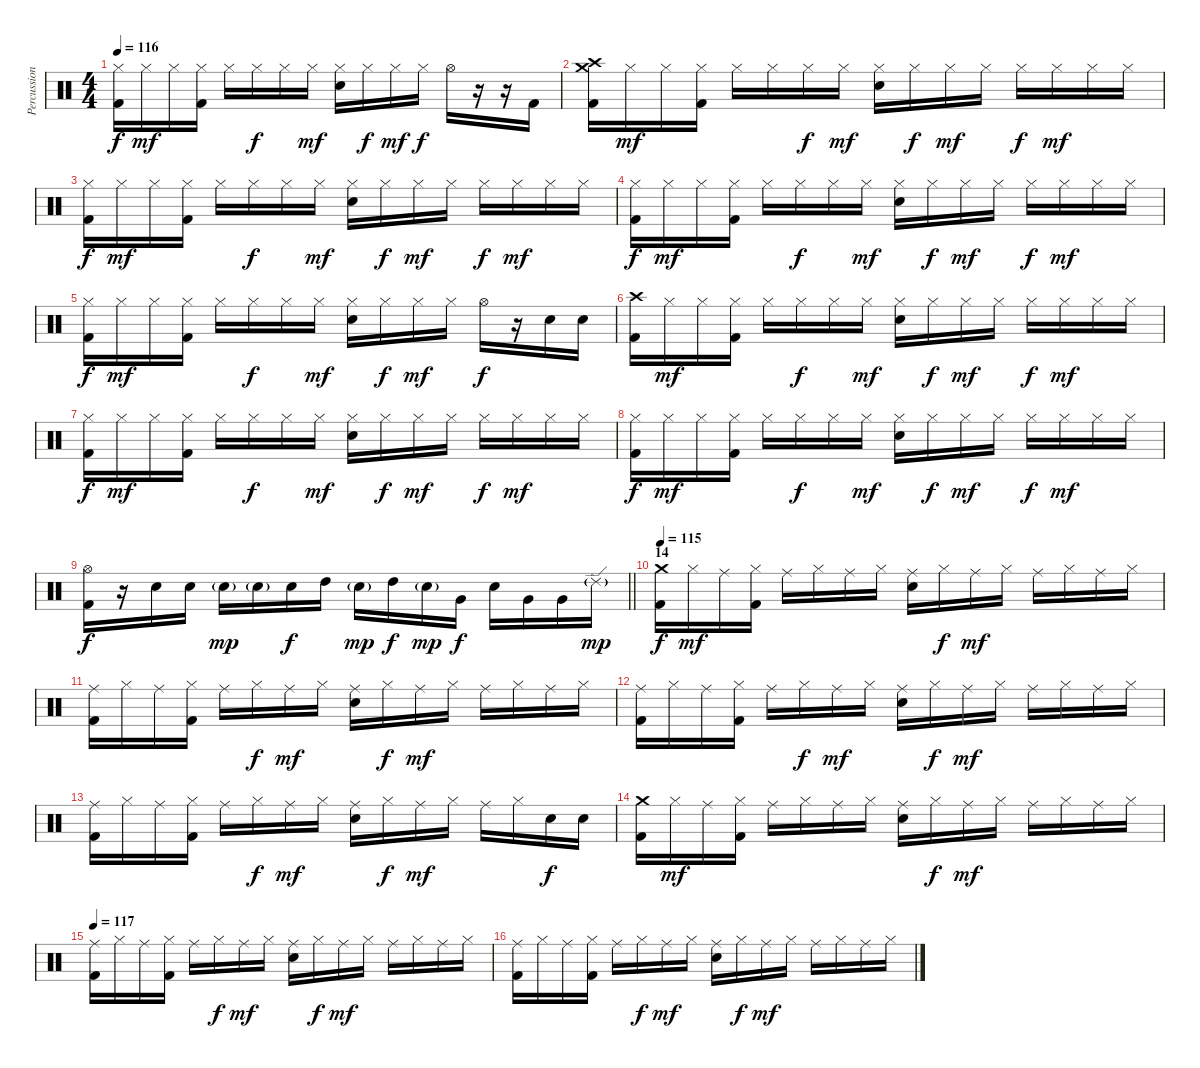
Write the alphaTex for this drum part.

\track ("Percussion" "Percussion") {instrument percussion}
\staff {score}
\articulation defaults
\ts (4 4)
\tempo 116
\clef neutral
\ks c
("Hi-Hat (closed)" "Kick (hit) 2").16{dy f} "Hi-Hat (closed)".16{dy mf} "Hi-Hat (closed)".16 ("Hi-Hat (closed)" "Kick (hit) 2").16 "Hi-Hat (closed)".16 "Hi-Hat (closed)".16{dy f} "Hi-Hat (closed)".16 "Hi-Hat (closed)".16{dy mf} ("Hi-Hat (closed)" "Snare (hit) 2").16 "Hi-Hat (closed)".16{dy f} "Hi-Hat (closed)".16{dy mf} "Hi-Hat (closed)".16{dy f} "Hi-Hat (open)".16 r.16 r.16 "Kick (hit) 2".16 |
("Crash high (hit)" "Crash medium (hit)" "Kick (hit) 2").16 "Hi-Hat (closed)".16{dy mf} "Hi-Hat (closed)".16 ("Hi-Hat (closed)" "Kick (hit) 2").16 "Hi-Hat (closed)".16 "Hi-Hat (closed)".16 "Hi-Hat (closed)".16{dy f} "Hi-Hat (closed)".16{dy mf} ("Hi-Hat (closed)" "Snare (hit) 2").16 "Hi-Hat (closed)".16{dy f} "Hi-Hat (closed)".16{dy mf} "Hi-Hat (closed)".16 "Hi-Hat (closed)".16{dy f} "Hi-Hat (closed)".16{dy mf} "Hi-Hat (closed)".16 "Hi-Hat (closed)".16 |
("Hi-Hat (closed)" "Kick (hit) 2").16{dy f} "Hi-Hat (closed)".16{dy mf} "Hi-Hat (closed)".16 ("Hi-Hat (closed)" "Kick (hit) 2").16 "Hi-Hat (closed)".16 "Hi-Hat (closed)".16{dy f} "Hi-Hat (closed)".16 "Hi-Hat (closed)".16{dy mf} ("Hi-Hat (closed)" "Snare (hit) 2").16 "Hi-Hat (closed)".16{dy f} "Hi-Hat (closed)".16{dy mf} "Hi-Hat (closed)".16 "Hi-Hat (closed)".16{dy f} "Hi-Hat (closed)".16{dy mf} "Hi-Hat (closed)".16 "Hi-Hat (closed)".16 |
("Hi-Hat (closed)" "Kick (hit) 2").16{dy f} "Hi-Hat (closed)".16{dy mf} "Hi-Hat (closed)".16 ("Hi-Hat (closed)" "Kick (hit) 2").16 "Hi-Hat (closed)".16 "Hi-Hat (closed)".16{dy f} "Hi-Hat (closed)".16 "Hi-Hat (closed)".16{dy mf} ("Hi-Hat (closed)" "Snare (hit) 2").16 "Hi-Hat (closed)".16{dy f} "Hi-Hat (closed)".16{dy mf} "Hi-Hat (closed)".16 "Hi-Hat (closed)".16{dy f} "Hi-Hat (closed)".16{dy mf} "Hi-Hat (closed)".16 "Hi-Hat (closed)".16 |
("Hi-Hat (closed)" "Kick (hit) 2").16{dy f} "Hi-Hat (closed)".16{dy mf} "Hi-Hat (closed)".16 ("Hi-Hat (closed)" "Kick (hit) 2").16 "Hi-Hat (closed)".16 "Hi-Hat (closed)".16{dy f} "Hi-Hat (closed)".16 "Hi-Hat (closed)".16{dy mf} ("Hi-Hat (closed)" "Snare (hit) 2").16 "Hi-Hat (closed)".16{dy f} "Hi-Hat (closed)".16{dy mf} "Hi-Hat (closed)".16 "Hi-Hat (open)".16{dy f} r.16 "Snare (hit) 2".16 "Snare (hit) 2".16 |
("Crash high (hit)" "Kick (hit) 2").16 "Hi-Hat (closed)".16{dy mf} "Hi-Hat (closed)".16 ("Hi-Hat (closed)" "Kick (hit) 2").16 "Hi-Hat (closed)".16 "Hi-Hat (closed)".16{dy f} "Hi-Hat (closed)".16 "Hi-Hat (closed)".16{dy mf} ("Hi-Hat (closed)" "Snare (hit) 2").16 "Hi-Hat (closed)".16{dy f} "Hi-Hat (closed)".16{dy mf} "Hi-Hat (closed)".16 "Hi-Hat (closed)".16{dy f} "Hi-Hat (closed)".16{dy mf} "Hi-Hat (closed)".16 "Hi-Hat (closed)".16 |
("Hi-Hat (closed)" "Kick (hit) 2").16{dy f} "Hi-Hat (closed)".16{dy mf} "Hi-Hat (closed)".16 ("Hi-Hat (closed)" "Kick (hit) 2").16 "Hi-Hat (closed)".16 "Hi-Hat (closed)".16{dy f} "Hi-Hat (closed)".16 "Hi-Hat (closed)".16{dy mf} ("Hi-Hat (closed)" "Snare (hit) 2").16 "Hi-Hat (closed)".16{dy f} "Hi-Hat (closed)".16{dy mf} "Hi-Hat (closed)".16 "Hi-Hat (closed)".16{dy f} "Hi-Hat (closed)".16{dy mf} "Hi-Hat (closed)".16 "Hi-Hat (closed)".16 |
("Hi-Hat (closed)" "Kick (hit) 2").16{dy f} "Hi-Hat (closed)".16{dy mf} "Hi-Hat (closed)".16 ("Hi-Hat (closed)" "Kick (hit) 2").16 "Hi-Hat (closed)".16 "Hi-Hat (closed)".16{dy f} "Hi-Hat (closed)".16 "Hi-Hat (closed)".16{dy mf} ("Hi-Hat (closed)" "Snare (hit) 2").16 "Hi-Hat (closed)".16{dy f} "Hi-Hat (closed)".16{dy mf} "Hi-Hat (closed)".16 "Hi-Hat (closed)".16{dy f} "Hi-Hat (closed)".16{dy mf} "Hi-Hat (closed)".16 "Hi-Hat (closed)".16 |
\barLineRight lightlight
("Hi-Hat (open)" "Kick (hit) 2").16{dy f} r.16 "Snare (hit) 2".16 "Snare (hit) 2".16 "Snare (hit) 2"{g}.16{dy mp} "Snare (hit) 2"{g}.16 "Snare (hit) 2".16{dy f} "High Tom (hit)".16 "Snare (hit) 2"{g}.16{dy mp} "High Tom (hit)".16{dy f} "Snare (hit) 2"{g}.16{dy mp} "Very Low Tom (hit)".16{dy f} "Snare (hit) 2".16 "Very Low Tom (hit)".16 "Very Low Tom (hit)".16 "Ride (edge) 2"{g}.16{dy mp} |
\section ("" "14")
\tempo 115
("Crash medium (hit)" "Kick (hit) 2").16{dy f} "Hi-Hat (closed)".16{dy mf} "Ride (middle)".16 ("Hi-Hat (closed)" "Kick (hit) 2").16 "Ride (middle)".16 "Hi-Hat (closed)".16 "Ride (middle)".16 "Hi-Hat (closed)".16 ("Ride (middle)" "Snare (hit) 2").16 "Hi-Hat (closed)".16{dy f} "Ride (middle)".16{dy mf} "Hi-Hat (closed)".16 "Ride (middle)".16 "Hi-Hat (closed)".16 "Ride (middle)".16 "Hi-Hat (closed)".16 |
("Ride (middle)" "Kick (hit) 2").16 "Hi-Hat (closed)".16 "Ride (middle)".16 ("Hi-Hat (closed)" "Kick (hit) 2").16 "Ride (middle)".16 "Hi-Hat (closed)".16{dy f} "Ride (middle)".16{dy mf} "Hi-Hat (closed)".16 ("Ride (middle)" "Snare (hit) 2").16 "Hi-Hat (closed)".16{dy f} "Ride (middle)".16{dy mf} "Hi-Hat (closed)".16 "Ride (middle)".16 "Hi-Hat (closed)".16 "Ride (middle)".16 "Hi-Hat (closed)".16 |
("Ride (middle)" "Kick (hit) 2").16 "Hi-Hat (closed)".16 "Ride (middle)".16 ("Hi-Hat (closed)" "Kick (hit) 2").16 "Ride (middle)".16 "Hi-Hat (closed)".16{dy f} "Ride (middle)".16{dy mf} "Hi-Hat (closed)".16 ("Ride (middle)" "Snare (hit) 2").16 "Hi-Hat (closed)".16{dy f} "Ride (middle)".16{dy mf} "Hi-Hat (closed)".16 "Ride (middle)".16 "Hi-Hat (closed)".16 "Ride (middle)".16 "Hi-Hat (closed)".16 |
("Ride (middle)" "Kick (hit) 2").16 "Hi-Hat (closed)".16 "Ride (middle)".16 ("Hi-Hat (closed)" "Kick (hit) 2").16 "Ride (middle)".16 "Hi-Hat (closed)".16{dy f} "Ride (middle)".16{dy mf} "Hi-Hat (closed)".16 ("Ride (middle)" "Snare (hit) 2").16 "Hi-Hat (closed)".16{dy f} "Ride (middle)".16{dy mf} "Hi-Hat (closed)".16 "Ride (middle)".16 "Hi-Hat (closed)".16 "Snare (hit) 2".16{dy f} "Snare (hit) 2".16 |
("Crash medium (hit)" "Kick (hit) 2").16 "Hi-Hat (closed)".16{dy mf} "Ride (middle)".16 ("Hi-Hat (closed)" "Kick (hit) 2").16 "Ride (middle)".16 "Hi-Hat (closed)".16 "Ride (middle)".16 "Hi-Hat (closed)".16 ("Ride (middle)" "Snare (hit) 2").16 "Hi-Hat (closed)".16{dy f} "Ride (middle)".16{dy mf} "Hi-Hat (closed)".16 "Ride (middle)".16 "Hi-Hat (closed)".16 "Ride (middle)".16 "Hi-Hat (closed)".16 |
\tempo 117
("Ride (middle)" "Kick (hit) 2").16 "Hi-Hat (closed)".16 "Ride (middle)".16 ("Hi-Hat (closed)" "Kick (hit) 2").16 "Ride (middle)".16 "Hi-Hat (closed)".16{dy f} "Ride (middle)".16{dy mf} "Hi-Hat (closed)".16 ("Ride (middle)" "Snare (hit) 2").16 "Hi-Hat (closed)".16{dy f} "Ride (middle)".16{dy mf} "Hi-Hat (closed)".16 "Ride (middle)".16 "Hi-Hat (closed)".16 "Ride (middle)".16 "Hi-Hat (closed)".16 |
("Ride (middle)" "Kick (hit) 2").16 "Hi-Hat (closed)".16 "Ride (middle)".16 ("Hi-Hat (closed)" "Kick (hit) 2").16 "Ride (middle)".16 "Hi-Hat (closed)".16{dy f} "Ride (middle)".16{dy mf} "Hi-Hat (closed)".16 ("Ride (middle)" "Snare (hit) 2").16 "Hi-Hat (closed)".16{dy f} "Ride (middle)".16{dy mf} "Hi-Hat (closed)".16 "Ride (middle)".16 "Hi-Hat (closed)".16 "Ride (middle)".16 "Hi-Hat (closed)".16
